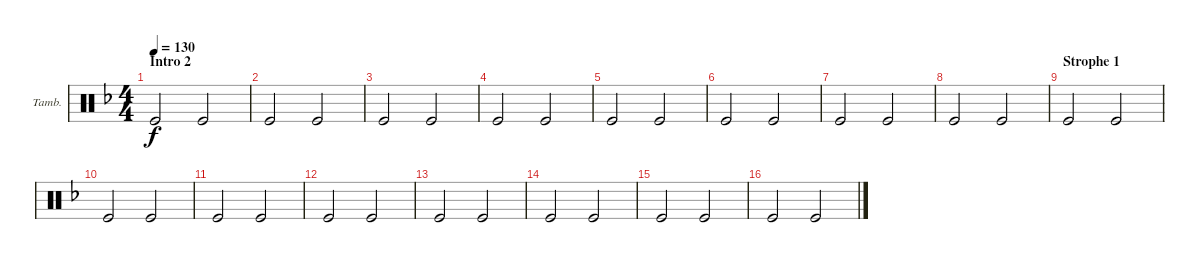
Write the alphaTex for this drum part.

\defaultSystemsLayout 4
\bracketExtendMode groupsimilarinstruments
\firstSystemTrackNameOrientation horizontal
\otherSystemsTrackNameOrientation horizontal
\track ("Tambourine" "Tamb.") {instrument percussion}
\staff {score}
\articulation defaults
\ts (4 4)
\section ("" "Intro 2")
\tempo 130
\clef neutral
\ks dminor "Kick (hit)".2{dy f} "Kick (hit)".2
|
"Kick (hit)".2 "Kick (hit)".2 |
"Kick (hit)".2 "Kick (hit)".2 |
"Kick (hit)".2 "Kick (hit)".2 |
"Kick (hit)".2 "Kick (hit)".2 |
"Kick (hit)".2 "Kick (hit)".2 |
"Kick (hit)".2 "Kick (hit)".2 |
"Kick (hit)".2 "Kick (hit)".2 |
\section ("" "Strophe 1")
"Kick (hit)".2 "Kick (hit)".2 |
"Kick (hit)".2 "Kick (hit)".2 |
"Kick (hit)".2 "Kick (hit)".2 |
"Kick (hit)".2 "Kick (hit)".2 |
"Kick (hit)".2 "Kick (hit)".2 |
"Kick (hit)".2 "Kick (hit)".2 |
"Kick (hit)".2 "Kick (hit)".2 |
"Kick (hit)".2 "Kick (hit)".2
